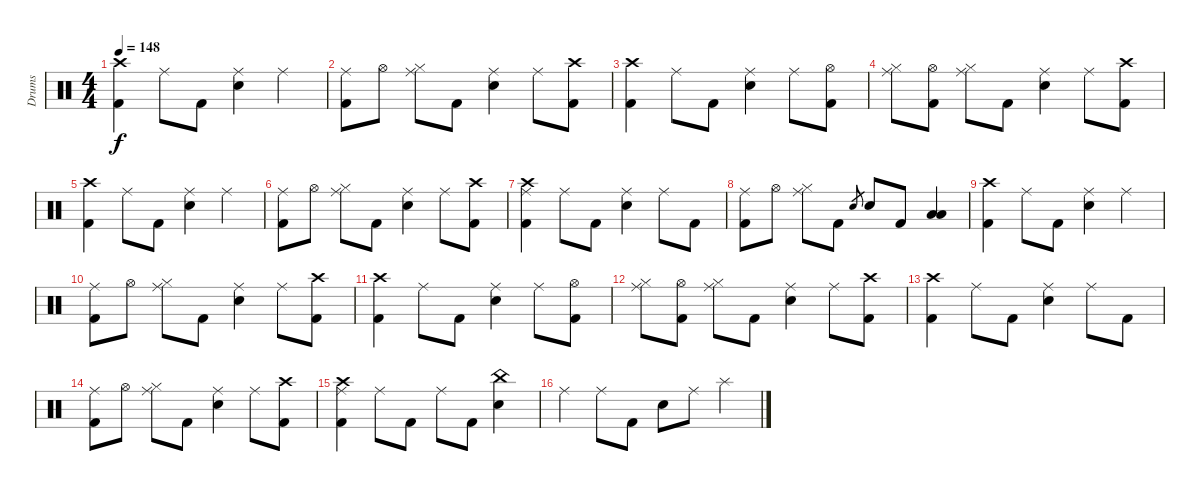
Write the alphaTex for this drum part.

\track ("Drums" "Drums") {instrument percussion}
\staff {score}
\articulation defaults
\ts (4 4)
\tempo 148
\clef neutral
\ks c
("Crash high (hit)" "Kick (hit) 2").4{dy f} "Ride (middle)".8 "Kick (hit) 2".8 ("Ride (middle)" "Electric Snare (hit)").4 "Ride (middle)".4 |
("Ride (middle)" "Kick (hit) 2").8 "Hi-Hat (open)".8 ("Ride (middle)" "Hi-Hat (closed)").8 "Kick (hit) 2".8 ("Ride (middle)" "Electric Snare (hit)").4 "Ride (middle)".8 ("Crash high (hit)" "Kick (hit) 2").8 |
("Crash high (hit)" "Kick (hit) 2").4 "Ride (middle)".8 "Kick (hit) 2".8 ("Ride (middle)" "Electric Snare (hit)").4 "Ride (middle)".8 ("Hi-Hat (open)" "Kick (hit) 2").8 |
("Ride (middle)" "Hi-Hat (closed)").8 ("Hi-Hat (open)" "Kick (hit) 2").8 ("Ride (middle)" "Hi-Hat (closed)").8 "Kick (hit) 2".8 ("Ride (middle)" "Electric Snare (hit)").4 "Ride (middle)".8 ("Crash high (hit)" "Kick (hit) 2").8 |
("Crash high (hit)" "Kick (hit) 2").4 "Ride (middle)".8 "Kick (hit) 2".8 ("Ride (middle)" "Electric Snare (hit)").4 "Ride (middle)".4 |
("Ride (middle)" "Kick (hit) 2").8 "Hi-Hat (open)".8 ("Ride (middle)" "Hi-Hat (closed)").8 "Kick (hit) 2".8 ("Ride (middle)" "Electric Snare (hit)").4 "Ride (middle)".8 ("Crash high (hit)" "Kick (hit) 2").8 |
("Crash high (hit)" "Ride (middle)" "Kick (hit) 2").4 "Ride (middle)".8 "Kick (hit) 2".8 ("Ride (middle)" "Electric Snare (hit)").4 "Ride (middle)".8 "Kick (hit) 2".8 |
("Ride (middle)" "Kick (hit) 2").8 "Hi-Hat (open)".8 ("Ride (middle)" "Hi-Hat (closed)").8 "Kick (hit) 2".8 "Electric Snare (hit)".8{gr} "Electric Snare (hit)".8 "Kick (hit) 2".8 ("Low Floor Tom (hit)" "Low Tom (hit)").4 |
("Crash high (hit)" "Kick (hit) 2").4 "Ride (middle)".8 "Kick (hit) 2".8 ("Ride (middle)" "Electric Snare (hit)").4 "Ride (middle)".4 |
("Ride (middle)" "Kick (hit) 2").8 "Hi-Hat (open)".8 ("Ride (middle)" "Hi-Hat (closed)").8 "Kick (hit) 2".8 ("Ride (middle)" "Electric Snare (hit)").4 "Ride (middle)".8 ("Crash high (hit)" "Kick (hit) 2").8 |
("Crash high (hit)" "Kick (hit) 2").4 "Ride (middle)".8 "Kick (hit) 2".8 ("Ride (middle)" "Electric Snare (hit)").4 "Ride (middle)".8 ("Hi-Hat (open)" "Kick (hit) 2").8 |
("Ride (middle)" "Hi-Hat (closed)").8 ("Hi-Hat (open)" "Kick (hit) 2").8 ("Ride (middle)" "Hi-Hat (closed)").8 "Kick (hit) 2".8 ("Ride (middle)" "Electric Snare (hit)").4 "Ride (middle)".8 ("Crash high (hit)" "Kick (hit) 2").8 |
("Crash high (hit)" "Kick (hit) 2").4 "Ride (middle)".8 "Kick (hit) 2".8 ("Ride (middle)" "Electric Snare (hit)").4 "Ride (middle)".8 "Kick (hit) 2".8 |
("Ride (middle)" "Kick (hit) 2").8 "Hi-Hat (open)".8 ("Ride (middle)" "Hi-Hat (closed)").8 "Kick (hit) 2".8 ("Ride (middle)" "Electric Snare (hit)").4 "Ride (middle)".8 ("Crash high (hit)" "Kick (hit) 2").8 |
("Crash high (hit)" "Ride (middle)" "Kick (hit) 2").4 "Ride (middle)".8 "Kick (hit) 2".8 "Ride (middle)".8 "Kick (hit) 2".8 ("China (hit)" "Electric Snare (hit)").4 |
"Ride (middle)".4 "Ride (middle)".8 "Kick (hit) 2".8 "Electric Snare (hit)".8 "Ride (middle)".8 "Splash (hit)".4
